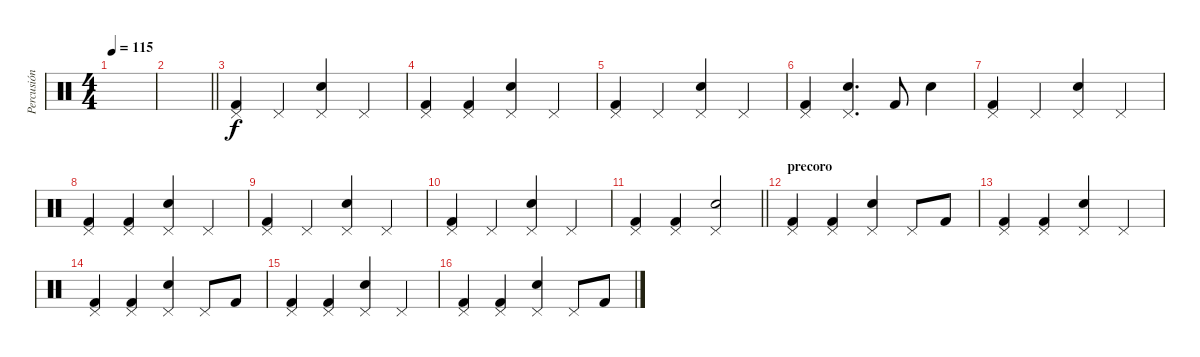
\track ("Percusión" "Percusión") {instrument percussion}
\staff {score}
\articulation defaults
\ts (4 4)
\tempo 115
\clef neutral
\ks c
|
\barLineRight lightlight
|
("Kick (hit) 2" "Pedal Hi-Hat (hit)").4 "Pedal Hi-Hat (hit)".4 ("Electric Snare (hit)" "Pedal Hi-Hat (hit)").4 "Pedal Hi-Hat (hit)".4 |
("Kick (hit) 2" "Pedal Hi-Hat (hit)").4 ("Kick (hit) 2" "Pedal Hi-Hat (hit)").4 ("Electric Snare (hit)" "Pedal Hi-Hat (hit)").4 "Pedal Hi-Hat (hit)".4 |
("Kick (hit) 2" "Pedal Hi-Hat (hit)").4 "Pedal Hi-Hat (hit)".4 ("Electric Snare (hit)" "Pedal Hi-Hat (hit)").4 "Pedal Hi-Hat (hit)".4 |
("Kick (hit) 2" "Pedal Hi-Hat (hit)").4 ("Electric Snare (hit)" "Pedal Hi-Hat (hit)").4{d} "Kick (hit) 2".8 "Electric Snare (hit)".4 |
("Kick (hit) 2" "Pedal Hi-Hat (hit)").4 "Pedal Hi-Hat (hit)".4 ("Electric Snare (hit)" "Pedal Hi-Hat (hit)").4 "Pedal Hi-Hat (hit)".4 |
("Kick (hit) 2" "Pedal Hi-Hat (hit)").4 ("Kick (hit) 2" "Pedal Hi-Hat (hit)").4 ("Electric Snare (hit)" "Pedal Hi-Hat (hit)").4 "Pedal Hi-Hat (hit)".4 |
("Kick (hit) 2" "Pedal Hi-Hat (hit)").4 "Pedal Hi-Hat (hit)".4 ("Electric Snare (hit)" "Pedal Hi-Hat (hit)").4 "Pedal Hi-Hat (hit)".4 |
("Kick (hit) 2" "Pedal Hi-Hat (hit)").4 "Pedal Hi-Hat (hit)".4 ("Electric Snare (hit)" "Pedal Hi-Hat (hit)").4 "Pedal Hi-Hat (hit)".4 |
\barLineRight lightlight
("Kick (hit) 2" "Pedal Hi-Hat (hit)").4 ("Kick (hit) 2" "Pedal Hi-Hat (hit)").4 ("Electric Snare (hit)" "Pedal Hi-Hat (hit)").2 |
\section ("" "precoro")
("Kick (hit) 2" "Pedal Hi-Hat (hit)").4 ("Kick (hit) 2" "Pedal Hi-Hat (hit)").4 ("Electric Snare (hit)" "Pedal Hi-Hat (hit)").4 "Pedal Hi-Hat (hit)".8 "Kick (hit) 2".8 |
("Kick (hit) 2" "Pedal Hi-Hat (hit)").4 ("Kick (hit) 2" "Pedal Hi-Hat (hit)").4 ("Electric Snare (hit)" "Pedal Hi-Hat (hit)").4 "Pedal Hi-Hat (hit)".4 |
("Kick (hit) 2" "Pedal Hi-Hat (hit)").4 ("Kick (hit) 2" "Pedal Hi-Hat (hit)").4 ("Electric Snare (hit)" "Pedal Hi-Hat (hit)").4 "Pedal Hi-Hat (hit)".8 "Kick (hit) 2".8 |
("Kick (hit) 2" "Pedal Hi-Hat (hit)").4 ("Kick (hit) 2" "Pedal Hi-Hat (hit)").4 ("Electric Snare (hit)" "Pedal Hi-Hat (hit)").4 "Pedal Hi-Hat (hit)".4 |
("Kick (hit) 2" "Pedal Hi-Hat (hit)").4 ("Kick (hit) 2" "Pedal Hi-Hat (hit)").4 ("Electric Snare (hit)" "Pedal Hi-Hat (hit)").4 "Pedal Hi-Hat (hit)".8 "Kick (hit) 2".8
